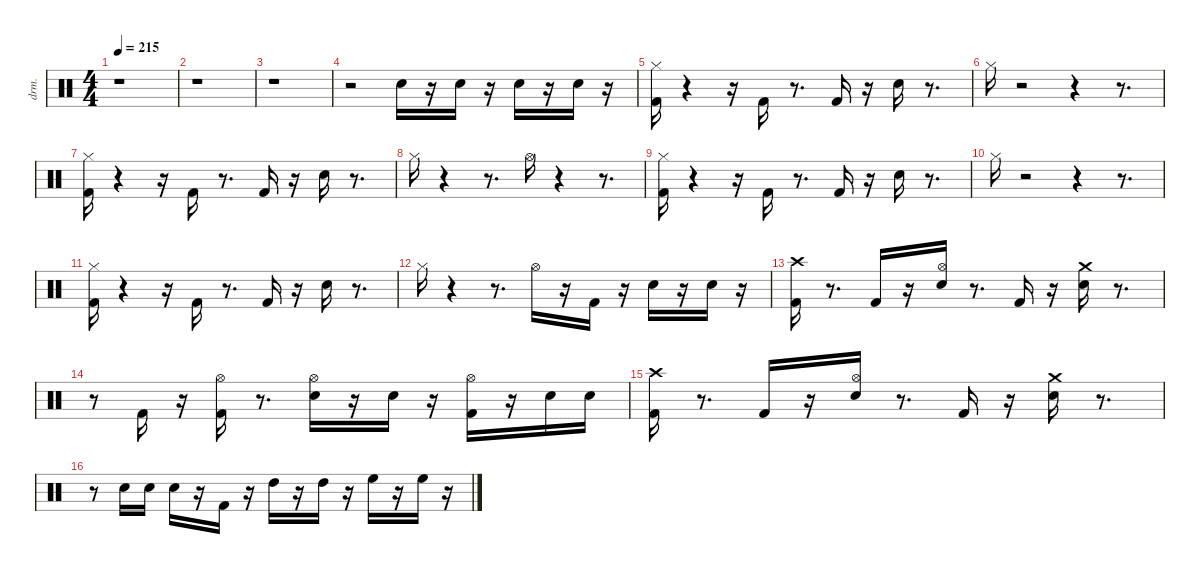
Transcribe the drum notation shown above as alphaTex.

\defaultSystemsLayout 4
\hideDynamics
\bracketExtendMode nobrackets
\otherSystemsTrackNameOrientation horizontal
\track ("drums(暫定)" "drm.") {instrument percussion}
\staff {score}
\articulation defaults
\ts (4 4)
\tempo 215
\clef neutral
\ks aminor
r.1{dy fff beam Down} |
r.1{beam Down} |
r.1{beam Down} |
r.2{beam Down} "Snare (hit) 2".16{dy ppp beam Down} r.16{beam Down} "Snare (hit) 2".16{beam Down} r.16{beam Down} "Snare (hit) 2".16{beam Down} r.16{beam Down} "Snare (hit) 2".16{beam Down} r.16{beam Down} |
("Kick (hit) 2" "Hi-Hat (closed)"{acc #}).16{dy ff beam Down} r.4{beam Down} r.16{beam Down} "Kick (hit) 2".16{beam Up} r.8{d beam Up} "Kick (hit) 2".16{beam Up} r.16{beam Up} "Snare (hit) 2".16{beam Down} r.8{d beam Down} |
"Hi-Hat (closed)"{acc #}.16{dy f beam Down} r.2{beam Down} r.4{beam Down} r.8{d beam Down} |
("Kick (hit) 2" "Hi-Hat (closed)"{acc #}).16{dy ff beam Down} r.4{beam Down} r.16{beam Down} "Kick (hit) 2".16{beam Up} r.8{d beam Up} "Kick (hit) 2".16{beam Up} r.16{beam Up} "Snare (hit) 2".16{beam Down} r.8{d beam Down} |
"Hi-Hat (closed)"{acc #}.16{dy f beam Down} r.4{beam Down} r.8{d beam Down} "Hi-Hat (open)"{acc #}.16{dy ff beam Down} r.4{beam Down} r.8{d beam Down} |
("Kick (hit) 2" "Hi-Hat (closed)"{acc #}).16{beam Down} r.4{beam Down} r.16{beam Down} "Kick (hit) 2".16{beam Up} r.8{d beam Up} "Kick (hit) 2".16{beam Up} r.16{beam Up} "Snare (hit) 2".16{beam Down} r.8{d beam Down} |
"Hi-Hat (closed)"{acc #}.16{dy f beam Down} r.2{beam Down} r.4{beam Down} r.8{d beam Down} |
("Kick (hit) 2" "Hi-Hat (closed)"{acc #}).16{dy ff beam Down} r.4{beam Down} r.16{beam Down} "Kick (hit) 2".16{beam Up} r.8{d beam Up} "Kick (hit) 2".16{beam Up} r.16{beam Up} "Snare (hit) 2".16{beam Down} r.8{d beam Down} |
"Hi-Hat (closed)"{acc #}.16{dy f beam Down} r.4{beam Down} r.8{d beam Down} "Hi-Hat (open)"{acc #}.16{dy ff beam Down} r.16{beam Down} "Kick (hit) 2".16{dy fff beam Up} r.16{beam Up} "Snare (hit) 2".16{beam Down} r.16{beam Down} "Snare (hit) 2".16{beam Down} r.16{beam Down} |
("Kick (hit) 2" "Crash high (hit)"{acc #}).16{beam Down} r.8{d beam Down} "Kick (hit) 2".16{dy f beam Up} r.16{beam Up} ("Snare (hit) 2" "Hi-Hat (open)"{acc #}).16{dy ff beam Down} r.8{d beam Down} "Kick (hit) 2".16{beam Up} r.16{beam Up} ("Snare (hit) 2" "Crash medium (hit)").16{beam Down} r.8{d beam Down} |
r.8{beam Down} "Kick (hit) 2".16{dy mf beam Up} r.16{beam Up} ("Kick (hit) 2" "Hi-Hat (open)"{acc #}).16{dy fff beam Down} r.8{d beam Down} ("Snare (hit) 2" "Hi-Hat (open)"{acc #}).16{beam Down} r.16{beam Down} "Snare (hit) 2".16{dy p beam Down} r.16{beam Down} ("Kick (hit) 2" "Hi-Hat (open)"{acc #}).16{dy ff beam Down} r.16{beam Down} "Snare (hit) 2".16{dy mp beam Down} "Snare (hit) 2".16{dy ppp beam Down} |
("Kick (hit) 2" "Crash high (hit)"{acc #}).16{dy fff beam Down} r.8{d beam Down} "Kick (hit) 2".16{dy f beam Up} r.16{beam Up} ("Snare (hit) 2" "Hi-Hat (open)"{acc #}).16{dy ff beam Down} r.8{d beam Down} "Kick (hit) 2".16{beam Up} r.16{beam Up} ("Snare (hit) 2" "Crash medium (hit)").16{beam Down} r.8{d beam Down} |
r.8{beam Down} "Snare (hit) 2".16{dy mf beam Down} "Snare (hit) 2".16{dy p beam Down} "Snare (hit) 2".16{dy ff beam Down} r.16{beam Down} "Kick (hit) 2".16{beam Up} r.16{beam Up} "High Tom (hit)".16{beam Down} r.16{beam Down} "High Tom (hit)".16{dy f beam Down} r.16{beam Down} "High Floor Tom (hit)".16{dy ff beam Down} r.16{beam Down} "High Floor Tom (hit)".16{dy f beam Down} r.16{beam Down}
